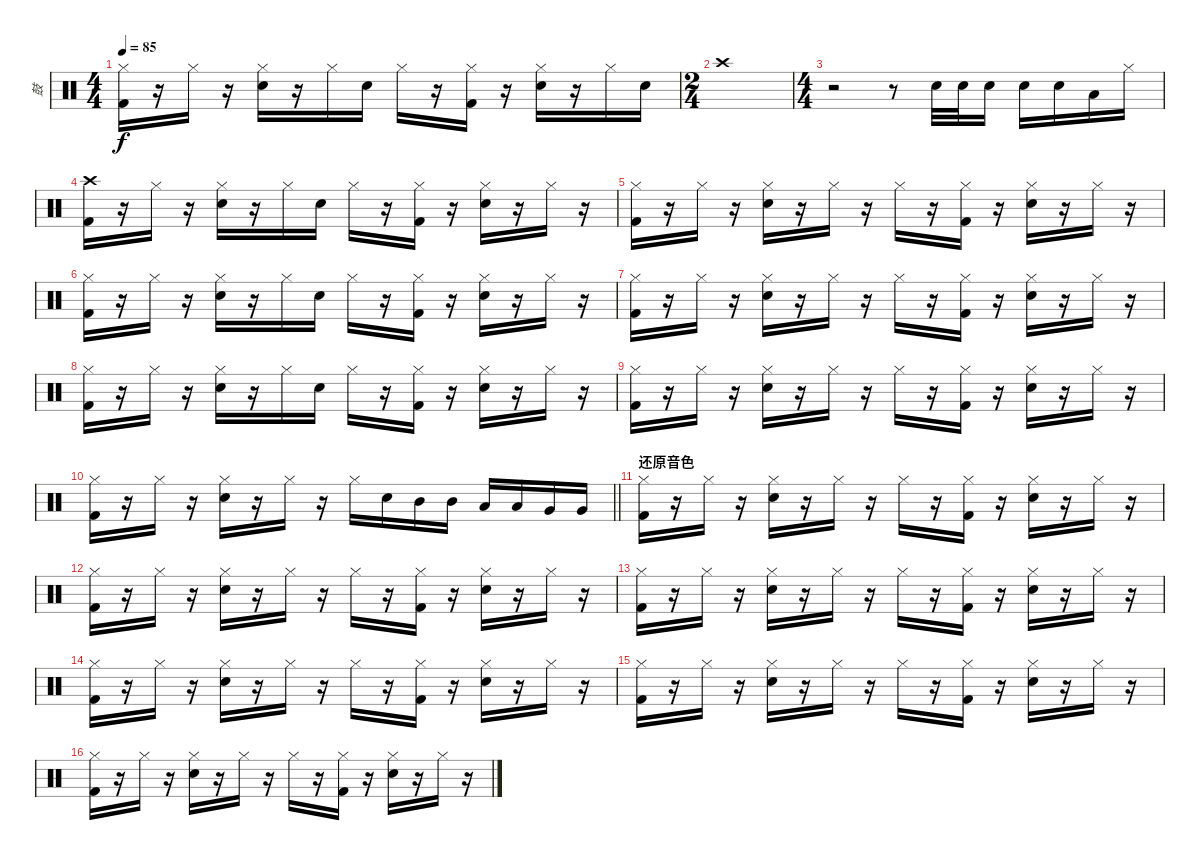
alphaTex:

\track ("鼓" "鼓") {instrument percussion}
\staff {score}
\articulation defaults
\ts (4 4)
\tempo 85
\clef neutral
\ks c
("Hi-Hat (closed)" "Kick (hit) 2").16{dy f} r.16 "Hi-Hat (closed)".16 r.16 ("Hi-Hat (closed)" "Snare (hit) 2").16 r.16 "Hi-Hat (closed)".16 "Snare (hit) 2".16 "Hi-Hat (closed)".16 r.16 ("Hi-Hat (closed)" "Kick (hit) 2").16 r.16 ("Hi-Hat (closed)" "Snare (hit) 2").16 r.16 "Hi-Hat (closed)".16 "Snare (hit) 2".16 |
\ts (2 4)
"Crash high (hit)".1 |
\ts (4 4)
r.2 r.8 "Snare (hit) 2".32 "Snare (hit) 2".32 "Snare (hit) 2".16 "Snare (hit) 2".16 "Snare (hit) 2".16 "Low Tom (hit)".16 "Hi-Hat (closed)".16 |
("Crash high (hit)" "Kick (hit) 2").16 r.16 "Hi-Hat (closed)".16 r.16 ("Hi-Hat (closed)" "Snare (hit) 2").16 r.16 "Hi-Hat (closed)".16 "Snare (hit) 2".16 "Hi-Hat (closed)".16 r.16 ("Hi-Hat (closed)" "Kick (hit) 2").16 r.16 ("Hi-Hat (closed)" "Snare (hit) 2").16 r.16 "Hi-Hat (closed)".16 r.16 |
("Hi-Hat (closed)" "Kick (hit) 2").16 r.16 "Hi-Hat (closed)".16 r.16 ("Hi-Hat (closed)" "Snare (hit) 2").16 r.16 "Hi-Hat (closed)".16 r.16 "Hi-Hat (closed)".16 r.16 ("Hi-Hat (closed)" "Kick (hit) 2").16 r.16 ("Hi-Hat (closed)" "Snare (hit) 2").16 r.16 "Hi-Hat (closed)".16 r.16 |
("Hi-Hat (closed)" "Kick (hit) 2").16 r.16 "Hi-Hat (closed)".16 r.16 ("Hi-Hat (closed)" "Snare (hit) 2").16 r.16 "Hi-Hat (closed)".16 "Snare (hit) 2".16 "Hi-Hat (closed)".16 r.16 ("Hi-Hat (closed)" "Kick (hit) 2").16 r.16 ("Hi-Hat (closed)" "Snare (hit) 2").16 r.16 "Hi-Hat (closed)".16 r.16 |
("Hi-Hat (closed)" "Kick (hit) 2").16 r.16 "Hi-Hat (closed)".16 r.16 ("Hi-Hat (closed)" "Snare (hit) 2").16 r.16 "Hi-Hat (closed)".16 r.16 "Hi-Hat (closed)".16 r.16 ("Hi-Hat (closed)" "Kick (hit) 2").16 r.16 ("Hi-Hat (closed)" "Snare (hit) 2").16 r.16 "Hi-Hat (closed)".16 r.16 |
("Hi-Hat (closed)" "Kick (hit) 2").16 r.16 "Hi-Hat (closed)".16 r.16 ("Hi-Hat (closed)" "Snare (hit) 2").16 r.16 "Hi-Hat (closed)".16 "Snare (hit) 2".16 "Hi-Hat (closed)".16 r.16 ("Hi-Hat (closed)" "Kick (hit) 2").16 r.16 ("Hi-Hat (closed)" "Snare (hit) 2").16 r.16 "Hi-Hat (closed)".16 r.16 |
("Hi-Hat (closed)" "Kick (hit) 2").16 r.16 "Hi-Hat (closed)".16 r.16 ("Hi-Hat (closed)" "Snare (hit) 2").16 r.16 "Hi-Hat (closed)".16 r.16 "Hi-Hat (closed)".16 r.16 ("Hi-Hat (closed)" "Kick (hit) 2").16 r.16 ("Hi-Hat (closed)" "Snare (hit) 2").16 r.16 "Hi-Hat (closed)".16 r.16 |
\barLineRight lightlight
("Hi-Hat (closed)" "Kick (hit) 2").16 r.16 "Hi-Hat (closed)".16 r.16 ("Hi-Hat (closed)" "Snare (hit) 2").16 r.16 "Hi-Hat (closed)".16 r.16 "Hi-Hat (closed)".16 "Snare (hit) 2".16 "Mid Tom (hit)".16 "Mid Tom (hit)".16 "Low Tom (hit)".16 "Low Tom (hit)".16 "Very Low Tom (hit)".16 "Very Low Tom (hit)".16 |
\section ("" "还原音色")
("Hi-Hat (closed)" "Kick (hit) 2").16 r.16 "Hi-Hat (closed)".16 r.16 ("Hi-Hat (closed)" "Snare (hit) 2").16 r.16 "Hi-Hat (closed)".16 r.16 "Hi-Hat (closed)".16 r.16 ("Hi-Hat (closed)" "Kick (hit) 2").16 r.16 ("Hi-Hat (closed)" "Snare (hit) 2").16 r.16 "Hi-Hat (closed)".16 r.16 |
("Hi-Hat (closed)" "Kick (hit) 2").16 r.16 "Hi-Hat (closed)".16 r.16 ("Hi-Hat (closed)" "Snare (hit) 2").16 r.16 "Hi-Hat (closed)".16 r.16 "Hi-Hat (closed)".16 r.16 ("Hi-Hat (closed)" "Kick (hit) 2").16 r.16 ("Hi-Hat (closed)" "Snare (hit) 2").16 r.16 "Hi-Hat (closed)".16 r.16 |
("Hi-Hat (closed)" "Kick (hit) 2").16 r.16 "Hi-Hat (closed)".16 r.16 ("Hi-Hat (closed)" "Snare (hit) 2").16 r.16 "Hi-Hat (closed)".16 r.16 "Hi-Hat (closed)".16 r.16 ("Hi-Hat (closed)" "Kick (hit) 2").16 r.16 ("Hi-Hat (closed)" "Snare (hit) 2").16 r.16 "Hi-Hat (closed)".16 r.16 |
("Hi-Hat (closed)" "Kick (hit) 2").16 r.16 "Hi-Hat (closed)".16 r.16 ("Hi-Hat (closed)" "Snare (hit) 2").16 r.16 "Hi-Hat (closed)".16 r.16 "Hi-Hat (closed)".16 r.16 ("Hi-Hat (closed)" "Kick (hit) 2").16 r.16 ("Hi-Hat (closed)" "Snare (hit) 2").16 r.16 "Hi-Hat (closed)".16 r.16 |
("Hi-Hat (closed)" "Kick (hit) 2").16 r.16 "Hi-Hat (closed)".16 r.16 ("Hi-Hat (closed)" "Snare (hit) 2").16 r.16 "Hi-Hat (closed)".16 r.16 "Hi-Hat (closed)".16 r.16 ("Hi-Hat (closed)" "Kick (hit) 2").16 r.16 ("Hi-Hat (closed)" "Snare (hit) 2").16 r.16 "Hi-Hat (closed)".16 r.16 |
("Hi-Hat (closed)" "Kick (hit) 2").16 r.16 "Hi-Hat (closed)".16 r.16 ("Hi-Hat (closed)" "Snare (hit) 2").16 r.16 "Hi-Hat (closed)".16 r.16 "Hi-Hat (closed)".16 r.16 ("Hi-Hat (closed)" "Kick (hit) 2").16 r.16 ("Hi-Hat (closed)" "Snare (hit) 2").16 r.16 "Hi-Hat (closed)".16 r.16
